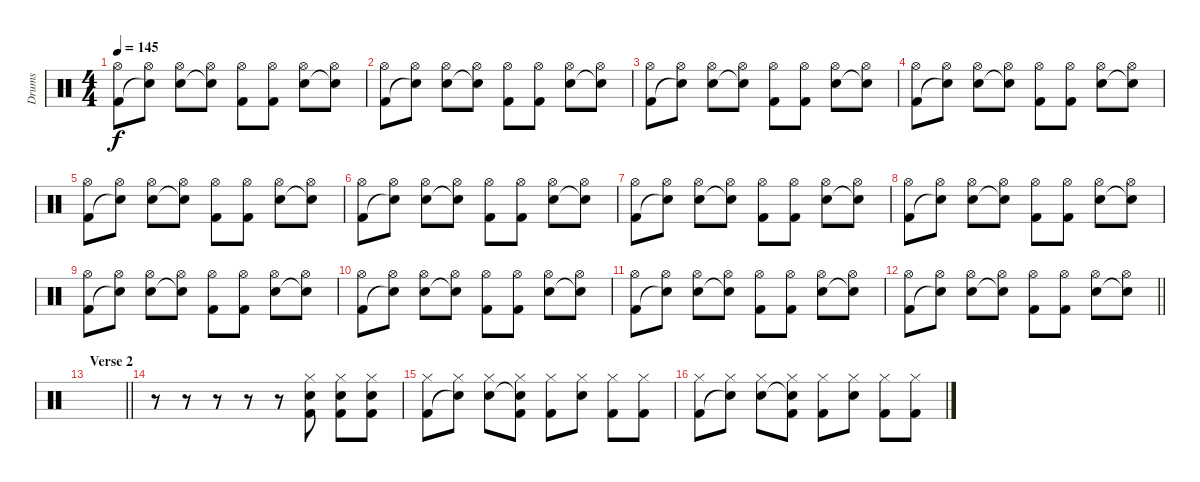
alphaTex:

\track ("Drums" "Drums") {instrument percussion}
\staff {score}
\articulation defaults
\ts (4 4)
\tempo 145
\clef neutral
\ks c
("Hi-Hat (open)" "Kick (hit) 2").8{dy f} ("Hi-Hat (open)" "Snare (hit)"{t}).8 ("Hi-Hat (open)" "Electric Snare (hit)").8 ("Hi-Hat (open)" "Snare (hit)"{t}).8 ("Hi-Hat (open)" "Kick (hit) 2").8 ("Hi-Hat (open)" "Kick (hit) 2").8 ("Hi-Hat (open)" "Electric Snare (hit)").8 ("Hi-Hat (open)" "Snare (hit)"{t}).8 |
("Hi-Hat (open)" "Kick (hit) 2").8 ("Hi-Hat (open)" "Snare (hit)"{t}).8 ("Hi-Hat (open)" "Electric Snare (hit)").8 ("Hi-Hat (open)" "Snare (hit)"{t}).8 ("Hi-Hat (open)" "Kick (hit) 2").8 ("Hi-Hat (open)" "Kick (hit) 2").8 ("Hi-Hat (open)" "Electric Snare (hit)").8 ("Hi-Hat (open)" "Snare (hit)"{t}).8 |
("Hi-Hat (open)" "Kick (hit) 2").8 ("Hi-Hat (open)" "Snare (hit)"{t}).8 ("Hi-Hat (open)" "Electric Snare (hit)").8 ("Hi-Hat (open)" "Snare (hit)"{t}).8 ("Hi-Hat (open)" "Kick (hit) 2").8 ("Hi-Hat (open)" "Kick (hit) 2").8 ("Hi-Hat (open)" "Electric Snare (hit)").8 ("Hi-Hat (open)" "Snare (hit)"{t}).8 |
("Hi-Hat (open)" "Kick (hit) 2").8 ("Hi-Hat (open)" "Snare (hit)"{t}).8 ("Hi-Hat (open)" "Electric Snare (hit)").8 ("Hi-Hat (open)" "Snare (hit)"{t}).8 ("Hi-Hat (open)" "Kick (hit) 2").8 ("Hi-Hat (open)" "Kick (hit) 2").8 ("Hi-Hat (open)" "Electric Snare (hit)").8 ("Hi-Hat (open)" "Snare (hit)"{t}).8 |
("Hi-Hat (open)" "Kick (hit) 2").8 ("Hi-Hat (open)" "Snare (hit)"{t}).8 ("Hi-Hat (open)" "Electric Snare (hit)").8 ("Hi-Hat (open)" "Snare (hit)"{t}).8 ("Hi-Hat (open)" "Kick (hit) 2").8 ("Hi-Hat (open)" "Kick (hit) 2").8 ("Hi-Hat (open)" "Electric Snare (hit)").8 ("Hi-Hat (open)" "Snare (hit)"{t}).8 |
("Hi-Hat (open)" "Kick (hit) 2").8 ("Hi-Hat (open)" "Snare (hit)"{t}).8 ("Hi-Hat (open)" "Electric Snare (hit)").8 ("Hi-Hat (open)" "Snare (hit)"{t}).8 ("Hi-Hat (open)" "Kick (hit) 2").8 ("Hi-Hat (open)" "Kick (hit) 2").8 ("Hi-Hat (open)" "Electric Snare (hit)").8 ("Hi-Hat (open)" "Snare (hit)"{t}).8 |
("Hi-Hat (open)" "Kick (hit) 2").8 ("Hi-Hat (open)" "Snare (hit)"{t}).8 ("Hi-Hat (open)" "Electric Snare (hit)").8 ("Hi-Hat (open)" "Snare (hit)"{t}).8 ("Hi-Hat (open)" "Kick (hit) 2").8 ("Hi-Hat (open)" "Kick (hit) 2").8 ("Hi-Hat (open)" "Electric Snare (hit)").8 ("Hi-Hat (open)" "Snare (hit)"{t}).8 |
("Hi-Hat (open)" "Kick (hit) 2").8 ("Hi-Hat (open)" "Snare (hit)"{t}).8 ("Hi-Hat (open)" "Electric Snare (hit)").8 ("Hi-Hat (open)" "Snare (hit)"{t}).8 ("Hi-Hat (open)" "Kick (hit) 2").8 ("Hi-Hat (open)" "Kick (hit) 2").8 ("Hi-Hat (open)" "Electric Snare (hit)").8 ("Hi-Hat (open)" "Snare (hit)"{t}).8 |
("Hi-Hat (open)" "Kick (hit) 2").8 ("Hi-Hat (open)" "Snare (hit)"{t}).8 ("Hi-Hat (open)" "Electric Snare (hit)").8 ("Hi-Hat (open)" "Snare (hit)"{t}).8 ("Hi-Hat (open)" "Kick (hit) 2").8 ("Hi-Hat (open)" "Kick (hit) 2").8 ("Hi-Hat (open)" "Electric Snare (hit)").8 ("Hi-Hat (open)" "Snare (hit)"{t}).8 |
("Hi-Hat (open)" "Kick (hit) 2").8 ("Hi-Hat (open)" "Snare (hit)"{t}).8 ("Hi-Hat (open)" "Electric Snare (hit)").8 ("Hi-Hat (open)" "Snare (hit)"{t}).8 ("Hi-Hat (open)" "Kick (hit) 2").8 ("Hi-Hat (open)" "Kick (hit) 2").8 ("Hi-Hat (open)" "Electric Snare (hit)").8 ("Hi-Hat (open)" "Snare (hit)"{t}).8 |
("Hi-Hat (open)" "Kick (hit) 2").8 ("Hi-Hat (open)" "Snare (hit)"{t}).8 ("Hi-Hat (open)" "Electric Snare (hit)").8 ("Hi-Hat (open)" "Snare (hit)"{t}).8 ("Hi-Hat (open)" "Kick (hit) 2").8 ("Hi-Hat (open)" "Kick (hit) 2").8 ("Hi-Hat (open)" "Electric Snare (hit)").8 ("Hi-Hat (open)" "Snare (hit)"{t}).8 |
\barLineRight lightlight
("Hi-Hat (open)" "Kick (hit) 2").8 ("Hi-Hat (open)" "Snare (hit)"{t}).8 ("Hi-Hat (open)" "Electric Snare (hit)").8 ("Hi-Hat (open)" "Snare (hit)"{t}).8 ("Hi-Hat (open)" "Kick (hit) 2").8 ("Hi-Hat (open)" "Kick (hit) 2").8 ("Hi-Hat (open)" "Electric Snare (hit)").8 ("Hi-Hat (open)" "Snare (hit)"{t}).8 |
\section ("" "Verse 2")
\barLineRight lightlight
|
\section ("" "")
r.8 r.8 r.8 r.8 r.8 ("Hi-Hat (closed)" "Electric Snare (hit)" "Kick (hit) 2").8 ("Hi-Hat (closed)" "Electric Snare (hit)" "Kick (hit) 2").8 ("Hi-Hat (closed)" "Electric Snare (hit)" "Kick (hit) 2").8 |
("Hi-Hat (closed)" "Kick (hit) 2").8 ("Hi-Hat (closed)" "Snare (hit)"{t}).8 ("Hi-Hat (closed)" "Electric Snare (hit)").8 ("Hi-Hat (closed)" "Snare (hit)"{t} "Kick (hit) 2").8 ("Hi-Hat (closed)" "Kick (hit) 2").8 ("Hi-Hat (closed)" "Electric Snare (hit)").8 ("Hi-Hat (closed)" "Kick (hit) 2").8 ("Hi-Hat (closed)" "Kick (hit) 2").8 |
("Hi-Hat (closed)" "Kick (hit) 2").8 ("Hi-Hat (closed)" "Snare (hit)"{t}).8 ("Hi-Hat (closed)" "Electric Snare (hit)").8 ("Hi-Hat (closed)" "Snare (hit)"{t} "Kick (hit) 2").8 ("Hi-Hat (closed)" "Kick (hit) 2").8 ("Hi-Hat (closed)" "Electric Snare (hit)").8 ("Hi-Hat (closed)" "Kick (hit) 2").8 ("Hi-Hat (closed)" "Kick (hit) 2").8
